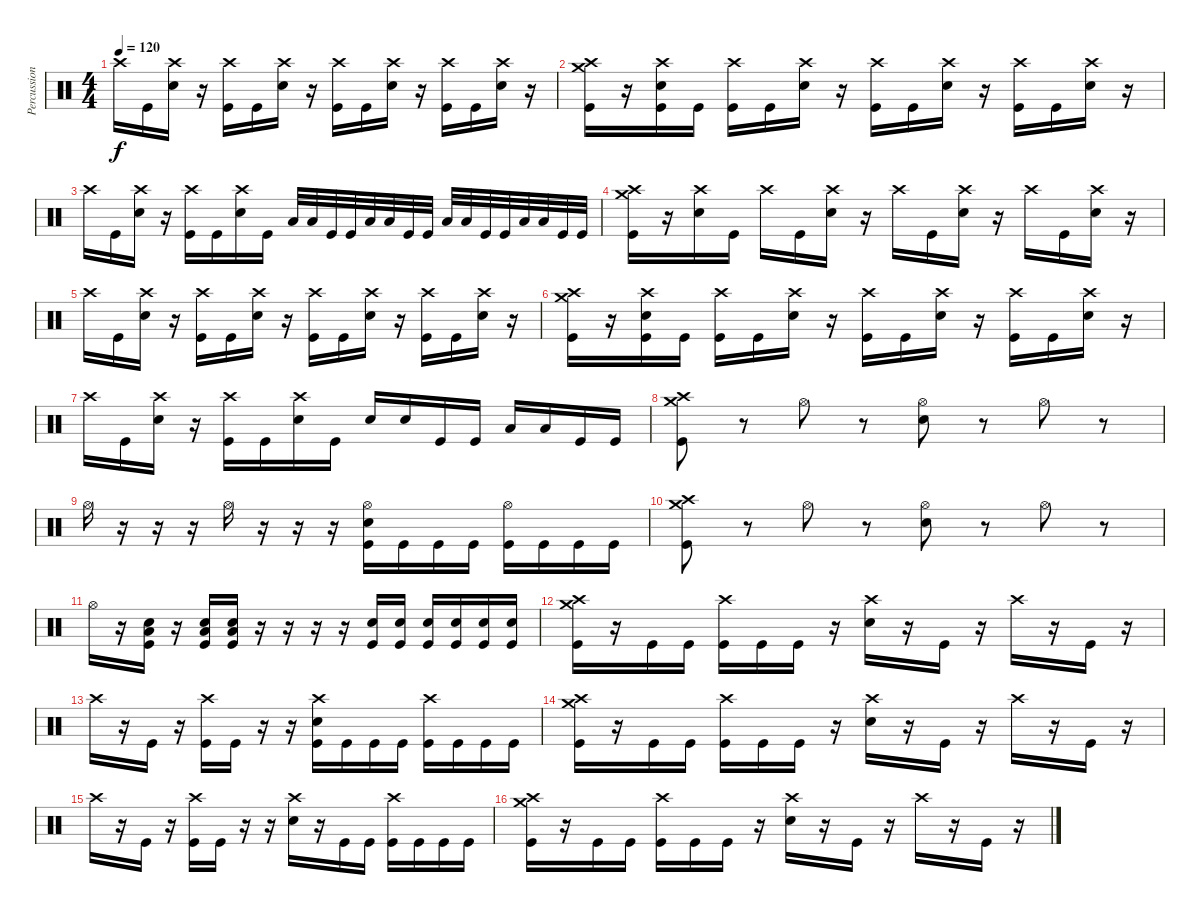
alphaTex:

\track ("Percussion" "Percussion") {instrument percussion}
\staff {score}
\articulation defaults
\ts (4 4)
\tempo 120
\clef neutral
\ks c "Crash high (hit)".16{dy f} "Kick (hit)".16
("Crash high (hit)" "Snare (hit) 2").16 r.16 ("Crash high (hit)" "Kick (hit)").16 "Kick (hit)".16 ("Crash high (hit)" "Snare (hit) 2").16 r.16 ("Crash high (hit)" "Kick (hit)").16 "Kick (hit)".16 ("Crash high (hit)" "Snare (hit) 2").16 r.16 ("Crash high (hit)" "Kick (hit)").16 "Kick (hit)".16 ("Crash high (hit)" "Snare (hit) 2").16 r.16 |
("Crash medium (hit)" "Crash high (hit)" "Kick (hit)").16 r.16 ("Crash high (hit)" "Snare (hit) 2" "Kick (hit)").16 "Kick (hit)".16 ("Crash high (hit)" "Kick (hit)").16 "Kick (hit)".16 ("Crash high (hit)" "Snare (hit) 2").16 r.16 ("Crash high (hit)" "Kick (hit)").16 "Kick (hit)".16 ("Crash high (hit)" "Snare (hit) 2").16 r.16 ("Crash high (hit)" "Kick (hit)").16 "Kick (hit)".16 ("Crash high (hit)" "Snare (hit) 2").16 r.16 |
"Crash high (hit)".16 "Kick (hit)".16 ("Crash high (hit)" "Snare (hit) 2").16 r.16 ("Crash high (hit)" "Kick (hit)").16 "Kick (hit)".16 ("Crash high (hit)" "Snare (hit) 2").16 "Kick (hit)".16 "Low Tom (hit)".32 "Low Tom (hit)".32 "Kick (hit)".32 "Kick (hit)".32 "Low Floor Tom (hit)".32 "Low Floor Tom (hit)".32 "Kick (hit)".32 "Kick (hit)".32 "Low Tom (hit)".32 "Low Tom (hit)".32 "Kick (hit)".32 "Kick (hit)".32 "Low Floor Tom (hit)".32 "Low Floor Tom (hit)".32 "Kick (hit)".32 "Kick (hit)".32 |
("Crash medium (hit)" "Crash high (hit)" "Kick (hit)").16 r.16 ("Crash high (hit)" "Snare (hit) 2").16 "Kick (hit)".16 "Crash high (hit)".16 "Kick (hit)".16 ("Crash high (hit)" "Snare (hit) 2").16 r.16 "Crash high (hit)".16 "Kick (hit)".16 ("Crash high (hit)" "Snare (hit) 2").16 r.16 "Crash high (hit)".16 "Kick (hit)".16 ("Crash high (hit)" "Snare (hit) 2").16 r.16 |
"Crash high (hit)".16 "Kick (hit)".16 ("Crash high (hit)" "Snare (hit) 2").16 r.16 ("Crash high (hit)" "Kick (hit)").16 "Kick (hit)".16 ("Crash high (hit)" "Snare (hit) 2").16 r.16 ("Crash high (hit)" "Kick (hit)").16 "Kick (hit)".16 ("Crash high (hit)" "Snare (hit) 2").16 r.16 ("Crash high (hit)" "Kick (hit)").16 "Kick (hit)".16 ("Crash high (hit)" "Snare (hit) 2").16 r.16 |
("Crash medium (hit)" "Crash high (hit)" "Kick (hit)").16 r.16 ("Crash high (hit)" "Snare (hit) 2" "Kick (hit)").16 "Kick (hit)".16 ("Crash high (hit)" "Kick (hit)").16 "Kick (hit)".16 ("Crash high (hit)" "Snare (hit) 2").16 r.16 ("Crash high (hit)" "Kick (hit)").16 "Kick (hit)".16 ("Crash high (hit)" "Snare (hit) 2").16 r.16 ("Crash high (hit)" "Kick (hit)").16 "Kick (hit)".16 ("Crash high (hit)" "Snare (hit) 2").16 r.16 |
"Crash high (hit)".16 "Kick (hit)".16 ("Crash high (hit)" "Snare (hit) 2").16 r.16 ("Crash high (hit)" "Kick (hit)").16 "Kick (hit)".16 ("Crash high (hit)" "Snare (hit) 2").16 "Kick (hit)".16 "Snare (hit) 2".16 "Snare (hit) 2".16 "Kick (hit)".16 "Kick (hit)".16 "Low Tom (hit)".16 "Low Tom (hit)".16 "Kick (hit)".16 "Kick (hit)".16 |
("Crash medium (hit)" "Crash high (hit)" "Kick (hit)").8 r.8 "Hi-Hat (open)".8 r.8 ("Hi-Hat (open)" "Snare (hit) 2").8 r.8 "Hi-Hat (open)".8 r.8 |
"Hi-Hat (open)".16 r.16 r.16 r.16 "Hi-Hat (open)".16 r.16 r.16 r.16 ("Hi-Hat (open)" "Snare (hit) 2" "Kick (hit)").16 "Kick (hit)".16 "Kick (hit)".16 "Kick (hit)".16 ("Hi-Hat (open)" "Kick (hit)").16 "Kick (hit)".16 "Kick (hit)".16 "Kick (hit)".16 |
("Crash medium (hit)" "Crash high (hit)" "Kick (hit)").8 r.8 "Hi-Hat (open)".8 r.8 ("Hi-Hat (open)" "Snare (hit) 2").8 r.8 "Hi-Hat (open)".8 r.8 |
"Hi-Hat (open)".16 r.16 ("Low Floor Tom (hit)" "Snare (hit) 2" "Kick (hit)").16 r.16 ("Low Floor Tom (hit)" "Snare (hit) 2" "Kick (hit)").16 ("Low Floor Tom (hit)" "Snare (hit) 2" "Kick (hit)").16 r.16 r.16 r.16 r.16 ("Snare (hit) 2" "Kick (hit)").16 ("Snare (hit) 2" "Kick (hit)").16 ("Snare (hit) 2" "Kick (hit)").16 ("Snare (hit) 2" "Kick (hit)").16 ("Snare (hit) 2" "Kick (hit)").16 ("Snare (hit) 2" "Kick (hit)").16 |
("Crash medium (hit)" "Crash high (hit)" "Kick (hit)").16 r.16 "Kick (hit)".16 "Kick (hit)".16 ("Crash high (hit)" "Kick (hit)").16 "Kick (hit)".16 "Kick (hit)".16 r.16 ("Crash high (hit)" "Snare (hit) 2").16 r.16 "Kick (hit)".16 r.16 "Crash high (hit)".16 r.16 "Kick (hit)".16 r.16 |
"Crash high (hit)".16 r.16 "Kick (hit)".16 r.16 ("Crash high (hit)" "Kick (hit)").16 "Kick (hit)".16 r.16 r.16 ("Crash high (hit)" "Snare (hit) 2" "Kick (hit)").16 "Kick (hit)".16 "Kick (hit)".16 "Kick (hit)".16 ("Crash high (hit)" "Kick (hit)").16 "Kick (hit)".16 "Kick (hit)".16 "Kick (hit)".16 |
("Crash medium (hit)" "Crash high (hit)" "Kick (hit)").16 r.16 "Kick (hit)".16 "Kick (hit)".16 ("Crash high (hit)" "Kick (hit)").16 "Kick (hit)".16 "Kick (hit)".16 r.16 ("Crash high (hit)" "Snare (hit) 2").16 r.16 "Kick (hit)".16 r.16 "Crash high (hit)".16 r.16 "Kick (hit)".16 r.16 |
"Crash high (hit)".16 r.16 "Kick (hit)".16 r.16 ("Crash high (hit)" "Kick (hit)").16 "Kick (hit)".16 r.16 r.16 ("Crash high (hit)" "Snare (hit) 2").16 r.16 "Kick (hit)".16 "Kick (hit)".16 ("Crash high (hit)" "Kick (hit)").16 "Kick (hit)".16 "Kick (hit)".16 "Kick (hit)".16 |
("Crash medium (hit)" "Crash high (hit)" "Kick (hit)").16 r.16 "Kick (hit)".16 "Kick (hit)".16 ("Crash high (hit)" "Kick (hit)").16 "Kick (hit)".16 "Kick (hit)".16 r.16 ("Crash high (hit)" "Snare (hit) 2").16 r.16 "Kick (hit)".16 r.16 "Crash high (hit)".16 r.16 "Kick (hit)".16 r.16
